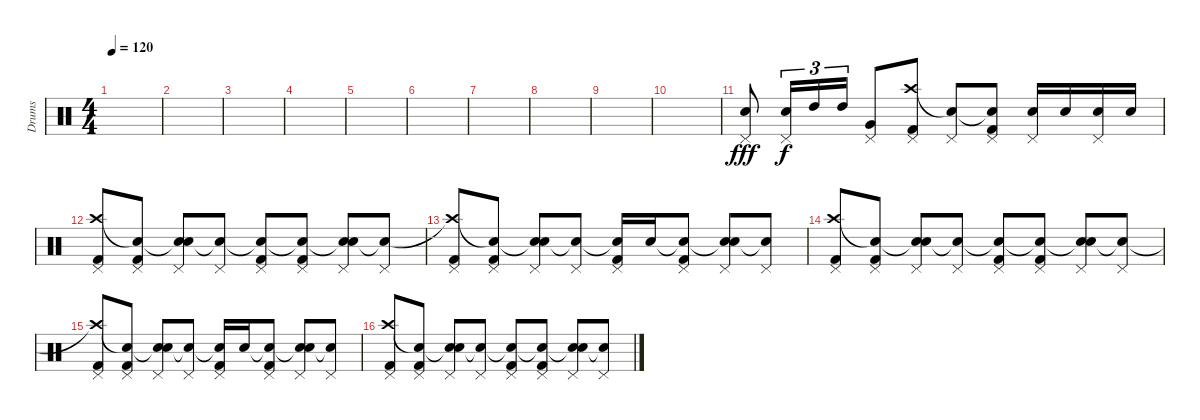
\track ("Drums" "Drums") {instrument percussion}
\staff {score}
\articulation defaults
\ts (4 4)
\tempo 120
\clef neutral
\ks c
|
|
|
|
|
|
|
|
|
|
("Pedal Hi-Hat (hit)" "Electric Snare (hit)").8{dy fff} ("Pedal Hi-Hat (hit)" "Electric Snare (hit)").16{tu (3 2) dy f} "High Tom (hit)".16{tu (3 2)} "High Tom (hit)".16{tu (3 2)} ("Pedal Hi-Hat (hit)" "Very Low Tom (hit)").8 ("Crash high (hit)" "Pedal Hi-Hat (hit)" "Kick (hit) 2").8 ("Snare (hit)"{t} "Pedal Hi-Hat (hit)").8 ("Snare (hit)"{t} "Pedal Hi-Hat (hit)" "Kick (hit) 2").8 ("Pedal Hi-Hat (hit)" "Electric Snare (hit)").16 "Electric Snare (hit)".16 ("Pedal Hi-Hat (hit)" "Electric Snare (hit)").16 "Electric Snare (hit)".16 |
("Crash high (hit)" "Pedal Hi-Hat (hit)" "Kick (hit) 2").8 ("Snare (hit)"{t} "Pedal Hi-Hat (hit)" "Kick (hit) 2").8 ("Snare (hit)"{t} "Pedal Hi-Hat (hit)" "Electric Snare (hit)").8 ("Snare (hit)"{t} "Pedal Hi-Hat (hit)").8 ("Snare (hit)"{t} "Pedal Hi-Hat (hit)" "Kick (hit) 2").8 ("Snare (hit)"{t} "Pedal Hi-Hat (hit)" "Kick (hit) 2").8 ("Snare (hit)"{t} "Pedal Hi-Hat (hit)" "Electric Snare (hit)").8 ("Snare (hit)"{t} "Pedal Hi-Hat (hit)").8 |
("Crash high (hit)"{t} "Pedal Hi-Hat (hit)" "Kick (hit) 2").8 ("Snare (hit)"{t} "Pedal Hi-Hat (hit)" "Kick (hit) 2").8 ("Snare (hit)"{t} "Pedal Hi-Hat (hit)" "Electric Snare (hit)").8 ("Snare (hit)"{t} "Pedal Hi-Hat (hit)").8 ("Snare (hit)"{t} "Pedal Hi-Hat (hit)" "Kick (hit) 2").16 "Electric Snare (hit)".16 ("Snare (hit)"{t} "Pedal Hi-Hat (hit)" "Kick (hit) 2").8 ("Snare (hit)"{t} "Pedal Hi-Hat (hit)" "Electric Snare (hit)").8 ("Snare (hit)"{t} "Pedal Hi-Hat (hit)").8 |
("Crash high (hit)" "Pedal Hi-Hat (hit)" "Kick (hit) 2").8 ("Snare (hit)"{t} "Pedal Hi-Hat (hit)" "Kick (hit) 2").8 ("Snare (hit)"{t} "Pedal Hi-Hat (hit)" "Electric Snare (hit)").8 ("Snare (hit)"{t} "Pedal Hi-Hat (hit)").8 ("Snare (hit)"{t} "Pedal Hi-Hat (hit)" "Kick (hit) 2").8 ("Snare (hit)"{t} "Pedal Hi-Hat (hit)" "Kick (hit) 2").8 ("Snare (hit)"{t} "Pedal Hi-Hat (hit)" "Electric Snare (hit)").8 ("Snare (hit)"{t} "Pedal Hi-Hat (hit)").8 |
("Crash high (hit)"{t} "Pedal Hi-Hat (hit)" "Kick (hit) 2").8 ("Snare (hit)"{t} "Pedal Hi-Hat (hit)" "Kick (hit) 2").8 ("Snare (hit)"{t} "Pedal Hi-Hat (hit)" "Electric Snare (hit)").8 ("Snare (hit)"{t} "Pedal Hi-Hat (hit)").8 ("Snare (hit)"{t} "Pedal Hi-Hat (hit)" "Kick (hit) 2").16 "Electric Snare (hit)".16 ("Snare (hit)"{t} "Pedal Hi-Hat (hit)" "Kick (hit) 2").8 ("Snare (hit)"{t} "Pedal Hi-Hat (hit)" "Electric Snare (hit)").8 ("Snare (hit)"{t} "Pedal Hi-Hat (hit)").8 |
("Crash high (hit)" "Pedal Hi-Hat (hit)" "Kick (hit) 2").8 ("Snare (hit)"{t} "Pedal Hi-Hat (hit)" "Kick (hit) 2").8 ("Snare (hit)"{t} "Pedal Hi-Hat (hit)" "Electric Snare (hit)").8 ("Snare (hit)"{t} "Pedal Hi-Hat (hit)").8 ("Snare (hit)"{t} "Pedal Hi-Hat (hit)" "Kick (hit) 2").8 ("Snare (hit)"{t} "Pedal Hi-Hat (hit)" "Kick (hit) 2").8 ("Snare (hit)"{t} "Pedal Hi-Hat (hit)" "Electric Snare (hit)").8 ("Snare (hit)"{t} "Pedal Hi-Hat (hit)").8
